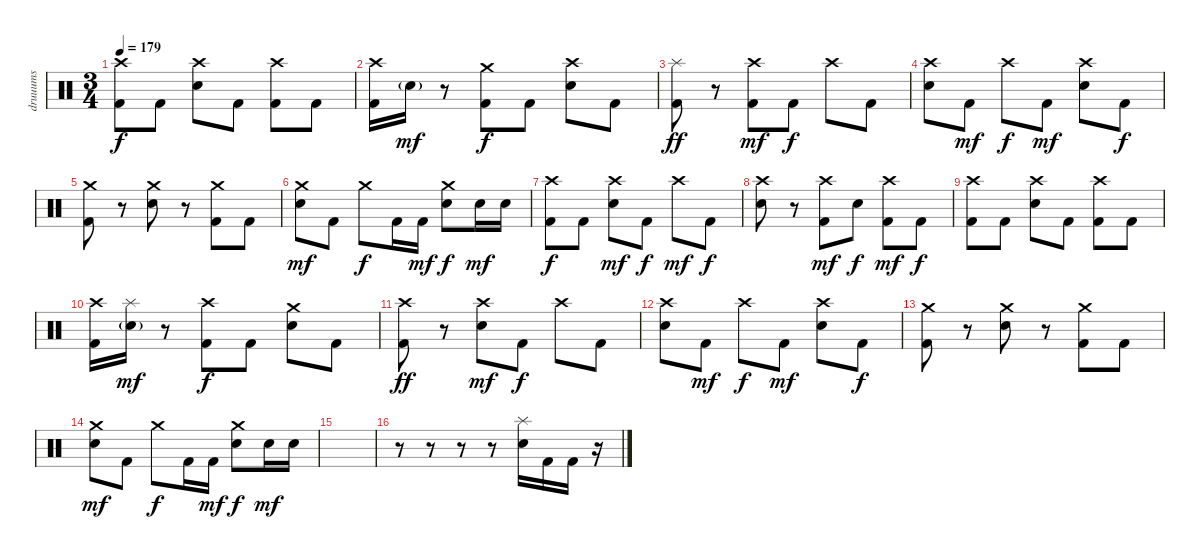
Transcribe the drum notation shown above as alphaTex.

\track ("druuums" "druuums") {instrument percussion}
\staff {score}
\articulation defaults
\ts (3 4)
\tempo 179
\clef neutral
\ks c
("Crash high (hit)" "Kick (hit) 2").8{dy f} "Kick (hit) 2".8 ("Crash high (hit)" "Electric Snare (hit)").8 "Kick (hit) 2".8 ("Crash high (hit)" "Kick (hit) 2").8 "Kick (hit) 2".8 |
("Crash high (hit)" "Kick (hit) 2").16 "Electric Snare (hit)"{g}.16{dy mf} r.8 ("Crash medium (hit)" "Kick (hit) 2").8{dy f} "Kick (hit) 2".8 ("Crash high (hit)" "Electric Snare (hit)").8 "Kick (hit) 2".8 |
("Splash (hit)" "Kick (hit) 2").8{dy ff} r.8 ("Crash high (hit)" "Kick (hit) 2").8{dy mf} "Kick (hit) 2".8{dy f} "Crash high (hit)".8 "Kick (hit) 2".8 |
("Crash high (hit)" "Electric Snare (hit)").8 "Kick (hit) 2".8{dy mf} "Crash high (hit)".8{dy f} "Kick (hit) 2".8{dy mf} ("Crash high (hit)" "Electric Snare (hit)").8 "Kick (hit) 2".8{dy f} |
("Crash medium (hit)" "Kick (hit) 2").8 r.8 ("Crash medium (hit)" "Electric Snare (hit)").8 r.8 ("Crash medium (hit)" "Kick (hit) 2").8 "Kick (hit) 2".8 |
("Crash medium (hit)" "Electric Snare (hit)").8{dy mf} "Kick (hit) 2".8 "Crash medium (hit)".8{dy f} "Kick (hit) 2".16 "Kick (hit) 2".16{dy mf} ("Crash medium (hit)" "Electric Snare (hit)").8{dy f} "Electric Snare (hit)".16{dy mf} "Electric Snare (hit)".16 |
("Crash high (hit)" "Kick (hit) 2").8{dy f} "Kick (hit) 2".8 ("Crash high (hit)" "Electric Snare (hit)").8{dy mf} "Kick (hit) 2".8{dy f} "Crash high (hit)".8{dy mf} "Kick (hit) 2".8{dy f} |
("Crash high (hit)" "Electric Snare (hit)").8 r.8 ("Crash high (hit)" "Kick (hit) 2").8{dy mf} "Electric Snare (hit)".8{dy f} ("Crash high (hit)" "Kick (hit) 2").8{dy mf} "Kick (hit) 2".8{dy f} |
("Crash high (hit)" "Kick (hit) 2").8 "Kick (hit) 2".8 ("Crash high (hit)" "Electric Snare (hit)").8 "Kick (hit) 2".8 ("Crash high (hit)" "Kick (hit) 2").8 "Kick (hit) 2".8 |
("Crash high (hit)" "Kick (hit) 2").16 ("Splash (hit)" "Electric Snare (hit)"{g}).16{dy mf} r.8 ("Crash high (hit)" "Kick (hit) 2").8{dy f} "Kick (hit) 2".8 ("Crash medium (hit)" "Electric Snare (hit)").8 "Kick (hit) 2".8 |
("Crash high (hit)" "Kick (hit) 2").8{dy ff} r.8 ("Crash high (hit)" "Electric Snare (hit)").8{dy mf} "Kick (hit) 2".8{dy f} "Crash high (hit)".8 "Kick (hit) 2".8 |
("Crash high (hit)" "Electric Snare (hit)").8 "Kick (hit) 2".8{dy mf} "Crash high (hit)".8{dy f} "Kick (hit) 2".8{dy mf} ("Crash high (hit)" "Electric Snare (hit)").8 "Kick (hit) 2".8{dy f} |
("Crash medium (hit)" "Kick (hit) 2").8 r.8 ("Crash medium (hit)" "Electric Snare (hit)").8 r.8 ("Crash medium (hit)" "Kick (hit) 2").8 "Kick (hit) 2".8 |
("Crash medium (hit)" "Electric Snare (hit)").8{dy mf} "Kick (hit) 2".8 "Crash medium (hit)".8{dy f} "Kick (hit) 2".16 "Kick (hit) 2".16{dy mf} ("Crash medium (hit)" "Electric Snare (hit)").8{dy f} "Electric Snare (hit)".16{dy mf} "Electric Snare (hit)".16 |
|
r.8 r.8 r.8 r.8 ("Splash (hit)" "Electric Snare (hit)").16 "Kick (hit) 2".16 "Kick (hit) 2".16 r.16
